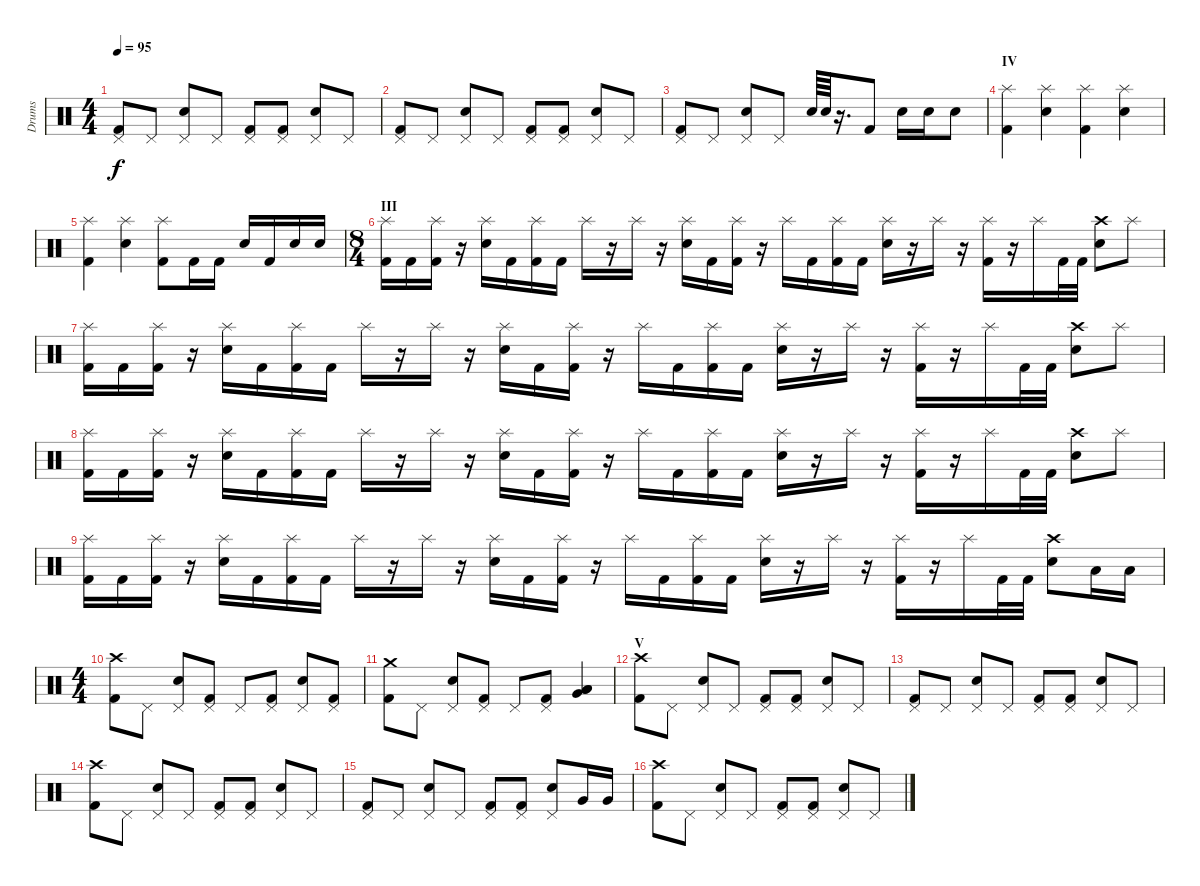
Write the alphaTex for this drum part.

\track ("Drums" "Drums") {instrument percussion}
\staff {score}
\articulation defaults
\ts (4 4)
\tempo 95
\clef neutral
\ks c
("Pedal Hi-Hat (hit)" "Kick (hit) 2").8{dy f} "Pedal Hi-Hat (hit)".8 ("Pedal Hi-Hat (hit)" "Electric Snare (hit)").8 "Pedal Hi-Hat (hit)".8 ("Pedal Hi-Hat (hit)" "Kick (hit) 2").8 ("Pedal Hi-Hat (hit)" "Kick (hit) 2").8 ("Pedal Hi-Hat (hit)" "Electric Snare (hit)").8 "Pedal Hi-Hat (hit)".8 |
("Pedal Hi-Hat (hit)" "Kick (hit) 2").8 "Pedal Hi-Hat (hit)".8 ("Pedal Hi-Hat (hit)" "Electric Snare (hit)").8 "Pedal Hi-Hat (hit)".8 ("Pedal Hi-Hat (hit)" "Kick (hit) 2").8 ("Pedal Hi-Hat (hit)" "Kick (hit) 2").8 ("Pedal Hi-Hat (hit)" "Electric Snare (hit)").8 "Pedal Hi-Hat (hit)".8 |
("Pedal Hi-Hat (hit)" "Kick (hit) 2").8 "Pedal Hi-Hat (hit)".8 ("Pedal Hi-Hat (hit)" "Electric Snare (hit)").8 "Pedal Hi-Hat (hit)".8 "Electric Snare (hit)".64 "Electric Snare (hit)".64 r.16{d} "Kick (hit) 2".8 "Electric Snare (hit)".16 "Electric Snare (hit)".16 "Electric Snare (hit)".8 |
\section ("" "IV")
("Splash (hit)" "Kick (hit) 2").4 ("Splash (hit)" "Electric Snare (hit)").4 ("Splash (hit)" "Kick (hit) 2").4 ("Splash (hit)" "Electric Snare (hit)").4 |
("Splash (hit)" "Kick (hit) 2").4 ("Splash (hit)" "Electric Snare (hit)").4 ("Splash (hit)" "Kick (hit) 2").8 "Kick (hit) 2".16 "Kick (hit) 2".16 "Electric Snare (hit)".16 "Kick (hit) 2".16 "Electric Snare (hit)".16 "Electric Snare (hit)".16 |
\ts (8 4)
\section ("" "III")
("Splash (hit)" "Kick (hit) 2").16 "Kick (hit) 2".16 ("Splash (hit)" "Kick (hit) 2").16 r.16 ("Splash (hit)" "Electric Snare (hit)").16 "Kick (hit) 2".16 ("Splash (hit)" "Kick (hit) 2").16 "Kick (hit) 2".16 "Splash (hit)".16 r.16 "Splash (hit)".16 r.16 ("Splash (hit)" "Electric Snare (hit)").16 "Kick (hit) 2".16 ("Splash (hit)" "Kick (hit) 2").16 r.16 "Splash (hit)".16 "Kick (hit) 2".16 ("Splash (hit)" "Kick (hit) 2").16 "Kick (hit) 2".16 ("Splash (hit)" "Electric Snare (hit)").16 r.16 "Splash (hit)".16 r.16 ("Splash (hit)" "Kick (hit) 2").16 r.16 "Splash (hit)".16 "Kick (hit) 2".32 "Kick (hit) 2".32 ("Crash high (hit)" "Electric Snare (hit)").8 "Splash (hit)".8 |
("Splash (hit)" "Kick (hit) 2").16 "Kick (hit) 2".16 ("Splash (hit)" "Kick (hit) 2").16 r.16 ("Splash (hit)" "Electric Snare (hit)").16 "Kick (hit) 2".16 ("Splash (hit)" "Kick (hit) 2").16 "Kick (hit) 2".16 "Splash (hit)".16 r.16 "Splash (hit)".16 r.16 ("Splash (hit)" "Electric Snare (hit)").16 "Kick (hit) 2".16 ("Splash (hit)" "Kick (hit) 2").16 r.16 "Splash (hit)".16 "Kick (hit) 2".16 ("Splash (hit)" "Kick (hit) 2").16 "Kick (hit) 2".16 ("Splash (hit)" "Electric Snare (hit)").16 r.16 "Splash (hit)".16 r.16 ("Splash (hit)" "Kick (hit) 2").16 r.16 "Splash (hit)".16 "Kick (hit) 2".32 "Kick (hit) 2".32 ("Crash high (hit)" "Electric Snare (hit)").8 "Splash (hit)".8 |
("Splash (hit)" "Kick (hit) 2").16 "Kick (hit) 2".16 ("Splash (hit)" "Kick (hit) 2").16 r.16 ("Splash (hit)" "Electric Snare (hit)").16 "Kick (hit) 2".16 ("Splash (hit)" "Kick (hit) 2").16 "Kick (hit) 2".16 "Splash (hit)".16 r.16 "Splash (hit)".16 r.16 ("Splash (hit)" "Electric Snare (hit)").16 "Kick (hit) 2".16 ("Splash (hit)" "Kick (hit) 2").16 r.16 "Splash (hit)".16 "Kick (hit) 2".16 ("Splash (hit)" "Kick (hit) 2").16 "Kick (hit) 2".16 ("Splash (hit)" "Electric Snare (hit)").16 r.16 "Splash (hit)".16 r.16 ("Splash (hit)" "Kick (hit) 2").16 r.16 "Splash (hit)".16 "Kick (hit) 2".32 "Kick (hit) 2".32 ("Crash high (hit)" "Electric Snare (hit)").8 "Splash (hit)".8 |
("Splash (hit)" "Kick (hit) 2").16 "Kick (hit) 2".16 ("Splash (hit)" "Kick (hit) 2").16 r.16 ("Splash (hit)" "Electric Snare (hit)").16 "Kick (hit) 2".16 ("Splash (hit)" "Kick (hit) 2").16 "Kick (hit) 2".16 "Splash (hit)".16 r.16 "Splash (hit)".16 r.16 ("Splash (hit)" "Electric Snare (hit)").16 "Kick (hit) 2".16 ("Splash (hit)" "Kick (hit) 2").16 r.16 "Splash (hit)".16 "Kick (hit) 2".16 ("Splash (hit)" "Kick (hit) 2").16 "Kick (hit) 2".16 ("Splash (hit)" "Electric Snare (hit)").16 r.16 "Splash (hit)".16 r.16 ("Splash (hit)" "Kick (hit) 2").16 r.16 "Splash (hit)".16 "Kick (hit) 2".32 "Kick (hit) 2".32 ("Crash high (hit)" "Electric Snare (hit)").8 "Low Tom (hit)".16 "Low Tom (hit)".16 |
\ts (4 4)
("Crash high (hit)" "Kick (hit) 2").8 "Pedal Hi-Hat (hit)".8 ("Pedal Hi-Hat (hit)" "Electric Snare (hit)").8 ("Pedal Hi-Hat (hit)" "Kick (hit) 2").8 "Pedal Hi-Hat (hit)".8 ("Pedal Hi-Hat (hit)" "Kick (hit) 2").8 ("Pedal Hi-Hat (hit)" "Electric Snare (hit)").8 ("Pedal Hi-Hat (hit)" "Kick (hit) 2").8 |
("Crash medium (hit)" "Kick (hit) 2").8 "Pedal Hi-Hat (hit)".8 ("Pedal Hi-Hat (hit)" "Electric Snare (hit)").8 ("Pedal Hi-Hat (hit)" "Kick (hit) 2").8 "Pedal Hi-Hat (hit)".8 ("Pedal Hi-Hat (hit)" "Kick (hit) 2").8 ("Low Floor Tom (hit)" "Low Tom (hit)" "Very Low Tom (hit)").4{bd 60} |
\section ("" "V")
("Crash high (hit)" "Kick (hit) 2").8 "Pedal Hi-Hat (hit)".8 ("Pedal Hi-Hat (hit)" "Electric Snare (hit)").8 "Pedal Hi-Hat (hit)".8 ("Pedal Hi-Hat (hit)" "Kick (hit) 2").8 ("Pedal Hi-Hat (hit)" "Kick (hit) 2").8 ("Pedal Hi-Hat (hit)" "Electric Snare (hit)").8 "Pedal Hi-Hat (hit)".8 |
("Pedal Hi-Hat (hit)" "Kick (hit) 2").8 "Pedal Hi-Hat (hit)".8 ("Pedal Hi-Hat (hit)" "Electric Snare (hit)").8 "Pedal Hi-Hat (hit)".8 ("Pedal Hi-Hat (hit)" "Kick (hit) 2").8 ("Pedal Hi-Hat (hit)" "Kick (hit) 2").8 ("Pedal Hi-Hat (hit)" "Electric Snare (hit)").8 "Pedal Hi-Hat (hit)".8 |
("Crash high (hit)" "Kick (hit) 2").8 "Pedal Hi-Hat (hit)".8 ("Pedal Hi-Hat (hit)" "Electric Snare (hit)").8 "Pedal Hi-Hat (hit)".8 ("Pedal Hi-Hat (hit)" "Kick (hit) 2").8 ("Pedal Hi-Hat (hit)" "Kick (hit) 2").8 ("Pedal Hi-Hat (hit)" "Electric Snare (hit)").8 "Pedal Hi-Hat (hit)".8 |
("Pedal Hi-Hat (hit)" "Kick (hit) 2").8 "Pedal Hi-Hat (hit)".8 ("Pedal Hi-Hat (hit)" "Electric Snare (hit)").8 "Pedal Hi-Hat (hit)".8 ("Pedal Hi-Hat (hit)" "Kick (hit) 2").8 ("Pedal Hi-Hat (hit)" "Kick (hit) 2").8 ("Pedal Hi-Hat (hit)" "Electric Snare (hit)").8 "Very Low Tom (hit)".16 "Very Low Tom (hit)".16 |
("Crash high (hit)" "Kick (hit) 2").8 "Pedal Hi-Hat (hit)".8 ("Pedal Hi-Hat (hit)" "Electric Snare (hit)").8 "Pedal Hi-Hat (hit)".8 ("Pedal Hi-Hat (hit)" "Kick (hit) 2").8 ("Pedal Hi-Hat (hit)" "Kick (hit) 2").8 ("Pedal Hi-Hat (hit)" "Electric Snare (hit)").8 "Pedal Hi-Hat (hit)".8
